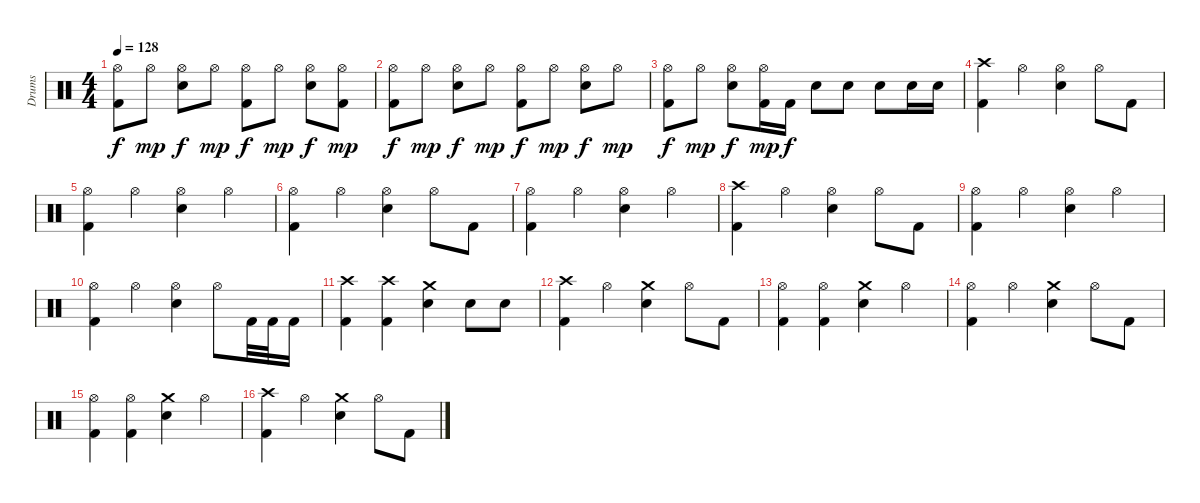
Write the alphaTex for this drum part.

\track ("Drums" "Drums") {instrument percussion}
\staff {score}
\articulation defaults
\ts (4 4)
\tempo 128
\clef neutral
\ks c
("Hi-Hat (open)" "Kick (hit) 2").8{dy f} "Hi-Hat (open)".8{dy mp} ("Hi-Hat (open)" "Snare (hit) 2").8{dy f} "Hi-Hat (open)".8{dy mp} ("Hi-Hat (open)" "Kick (hit) 2").8{dy f} "Hi-Hat (open)".8{dy mp} ("Hi-Hat (open)" "Snare (hit) 2").8{dy f} ("Hi-Hat (open)" "Kick (hit) 2").8{dy mp} |
("Hi-Hat (open)" "Kick (hit) 2").8{dy f} "Hi-Hat (open)".8{dy mp} ("Hi-Hat (open)" "Snare (hit) 2").8{dy f} "Hi-Hat (open)".8{dy mp} ("Hi-Hat (open)" "Kick (hit) 2").8{dy f} "Hi-Hat (open)".8{dy mp} ("Hi-Hat (open)" "Snare (hit) 2").8{dy f} "Hi-Hat (open)".8{dy mp} |
("Hi-Hat (open)" "Kick (hit) 2").8{dy f} "Hi-Hat (open)".8{dy mp} ("Hi-Hat (open)" "Snare (hit) 2").8{dy f} ("Hi-Hat (open)" "Kick (hit) 2").16{dy mp} "Kick (hit) 2".16{dy f} "Snare (hit) 2".8 "Snare (hit) 2".8 "Snare (hit) 2".8 "Snare (hit) 2".16 "Snare (hit) 2".16 |
("Crash high (hit)" "Kick (hit) 2").4 "Hi-Hat (open)".4 ("Hi-Hat (open)" "Snare (hit) 2").4 "Hi-Hat (open)".8 "Kick (hit) 2".8 |
("Hi-Hat (open)" "Kick (hit) 2").4 "Hi-Hat (open)".4 ("Hi-Hat (open)" "Snare (hit) 2").4 "Hi-Hat (open)".4 |
("Hi-Hat (open)" "Kick (hit) 2").4 "Hi-Hat (open)".4 ("Hi-Hat (open)" "Snare (hit) 2").4 "Hi-Hat (open)".8 "Kick (hit) 2".8 |
("Hi-Hat (open)" "Kick (hit) 2").4 "Hi-Hat (open)".4 ("Hi-Hat (open)" "Snare (hit) 2").4 "Hi-Hat (open)".4 |
("Crash high (hit)" "Kick (hit) 2").4 "Hi-Hat (open)".4 ("Hi-Hat (open)" "Snare (hit) 2").4 "Hi-Hat (open)".8 "Kick (hit) 2".8 |
("Hi-Hat (open)" "Kick (hit) 2").4 "Hi-Hat (open)".4 ("Hi-Hat (open)" "Snare (hit) 2").4 "Hi-Hat (open)".4 |
("Hi-Hat (open)" "Kick (hit) 2").4 "Hi-Hat (open)".4 ("Hi-Hat (open)" "Snare (hit) 2").4 "Hi-Hat (open)".8 "Kick (hit) 2".32 "Kick (hit) 2".32 "Kick (hit) 2".16 |
("Crash high (hit)" "Kick (hit) 2").4 ("Crash high (hit)" "Kick (hit) 2").4 ("Crash medium (hit)" "Snare (hit) 2").4 "Snare (hit) 2".8 "Snare (hit) 2".8 |
("Crash high (hit)" "Kick (hit) 2").4{volume 11} "Hi-Hat (open)".4 ("Crash medium (hit)" "Snare (hit) 2").4 "Hi-Hat (open)".8 "Kick (hit) 2".8 |
("Hi-Hat (open)" "Kick (hit) 2").4 ("Hi-Hat (open)" "Kick (hit) 2").4 ("Crash medium (hit)" "Snare (hit) 2").4 "Hi-Hat (open)".4 |
("Hi-Hat (open)" "Kick (hit) 2").4{volume 0} "Hi-Hat (open)".4 ("Crash medium (hit)" "Snare (hit) 2").4 "Hi-Hat (open)".8 "Kick (hit) 2".8 |
("Hi-Hat (open)" "Kick (hit) 2").4 ("Hi-Hat (open)" "Kick (hit) 2").4 ("Crash medium (hit)" "Snare (hit) 2").4 "Hi-Hat (open)".4 |
("Crash high (hit)" "Kick (hit) 2").4 "Hi-Hat (open)".4 ("Crash medium (hit)" "Snare (hit) 2").4 "Hi-Hat (open)".8 "Kick (hit) 2".8
